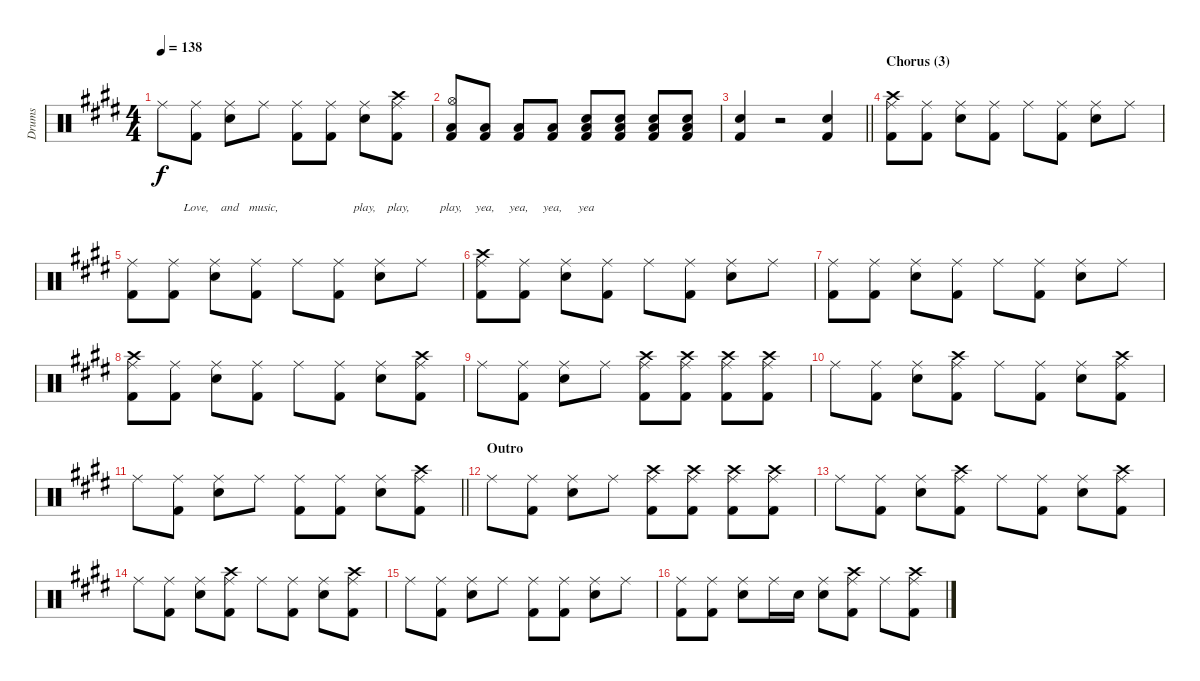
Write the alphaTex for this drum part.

\track ("Drums" "Drums") {instrument percussion}
\staff {score}
\articulation defaults
\ts (4 4)
\tempo 138
\clef neutral
\ks e "Ride (middle)".8{lyrics (0 "") lyrics (1 "") lyrics (2 "") lyrics (3 "") lyrics (4 "") dy f}
("Kick (hit) 2" "Ride (middle)").8{lyrics (0 "") lyrics (1 "") lyrics (2 "") lyrics (3 "Love,") lyrics (4 "")} ("Snare (hit) 2" "Ride (middle)").8{lyrics (0 "") lyrics (1 "") lyrics (2 "") lyrics (3 "and") lyrics (4 "")} "Ride (middle)".8{lyrics (0 "") lyrics (1 "") lyrics (2 "") lyrics (3 "music,") lyrics (4 "")} ("Kick (hit) 2" "Ride (middle)").8{lyrics (0 "") lyrics (1 "") lyrics (2 "") lyrics (3 "") lyrics (4 "")} ("Kick (hit) 2" "Ride (middle)").8{lyrics (0 "") lyrics (1 "") lyrics (2 "") lyrics (3 "") lyrics (4 "")} ("Snare (hit) 2" "Ride (middle)").8{lyrics (0 "") lyrics (1 "") lyrics (2 "") lyrics (3 "play,") lyrics (4 "")} ("Crash high (hit)" "Kick (hit) 2" "Ride (middle)").8{lyrics (0 "") lyrics (1 "") lyrics (2 "") lyrics (3 "play,") lyrics (4 "")} |
("Hi-Hat (open)" "Low Floor Tom (hit)" "Kick (hit) 2").8{lyrics (0 "") lyrics (1 "") lyrics (2 "") lyrics (3 "play,") lyrics (4 "")} ("Low Floor Tom (hit)" "Kick (hit) 2").8{lyrics (0 "") lyrics (1 "") lyrics (2 "") lyrics (3 "yea,") lyrics (4 "")} ("Low Floor Tom (hit)" "Kick (hit) 2").8{lyrics (0 "") lyrics (1 "") lyrics (2 "") lyrics (3 "yea,") lyrics (4 "")} ("Low Floor Tom (hit)" "Kick (hit) 2").8{lyrics (0 "") lyrics (1 "") lyrics (2 "") lyrics (3 "yea,") lyrics (4 "")} ("Low Floor Tom (hit)" "Kick (hit) 2" "Snare (hit) 2").8{lyrics (0 "") lyrics (1 "") lyrics (2 "") lyrics (3 "yea") lyrics (4 "")} ("Low Floor Tom (hit)" "Kick (hit) 2" "Snare (hit) 2").8 ("Low Floor Tom (hit)" "Kick (hit) 2" "Snare (hit) 2").8 ("Low Floor Tom (hit)" "Kick (hit) 2" "Snare (hit) 2").8 |
\barLineRight lightlight
("Snare (hit) 2" "Kick (hit) 2").4 r.2 ("Snare (hit) 2" "Kick (hit) 2").4 |
\section ("" "Chorus (3)")
("Crash high (hit)" "Kick (hit) 2" "Ride (middle)").8 ("Kick (hit) 2" "Ride (middle)").8 ("Snare (hit) 2" "Ride (middle)").8 ("Kick (hit) 2" "Ride (middle)").8 "Ride (middle)".8 ("Kick (hit) 2" "Ride (middle)").8 ("Snare (hit) 2" "Ride (middle)").8 "Ride (middle)".8 |
("Kick (hit) 2" "Ride (middle)").8 ("Kick (hit) 2" "Ride (middle)").8 ("Snare (hit) 2" "Ride (middle)").8 ("Kick (hit) 2" "Ride (middle)").8 "Ride (middle)".8 ("Kick (hit) 2" "Ride (middle)").8 ("Snare (hit) 2" "Ride (middle)").8 "Ride (middle)".8 |
("Crash high (hit)" "Kick (hit) 2" "Ride (middle)").8 ("Kick (hit) 2" "Ride (middle)").8 ("Snare (hit) 2" "Ride (middle)").8 ("Kick (hit) 2" "Ride (middle)").8 "Ride (middle)".8 ("Kick (hit) 2" "Ride (middle)").8 ("Snare (hit) 2" "Ride (middle)").8 "Ride (middle)".8 |
("Kick (hit) 2" "Ride (middle)").8 ("Kick (hit) 2" "Ride (middle)").8 ("Snare (hit) 2" "Ride (middle)").8 ("Kick (hit) 2" "Ride (middle)").8 "Ride (middle)".8 ("Kick (hit) 2" "Ride (middle)").8 ("Snare (hit) 2" "Ride (middle)").8 "Ride (middle)".8 |
("Crash high (hit)" "Kick (hit) 2" "Ride (middle)").8 ("Kick (hit) 2" "Ride (middle)").8 ("Snare (hit) 2" "Ride (middle)").8 ("Kick (hit) 2" "Ride (middle)").8 "Ride (middle)".8 ("Kick (hit) 2" "Ride (middle)").8 ("Snare (hit) 2" "Ride (middle)").8 ("Crash high (hit)" "Kick (hit) 2" "Ride (middle)").8 |
"Ride (middle)".8 ("Kick (hit) 2" "Ride (middle)").8 ("Snare (hit) 2" "Ride (middle)").8 "Ride (middle)".8 ("Crash high (hit)" "Kick (hit) 2" "Ride (middle)").8 ("Crash high (hit)" "Kick (hit) 2" "Ride (middle)").8 ("Crash high (hit)" "Kick (hit) 2" "Ride (middle)").8 ("Crash high (hit)" "Kick (hit) 2" "Ride (middle)").8 |
"Ride (middle)".8 ("Kick (hit) 2" "Ride (middle)").8 ("Snare (hit) 2" "Ride (middle)").8 ("Crash high (hit)" "Kick (hit) 2" "Ride (middle)").8 "Ride (middle)".8 ("Kick (hit) 2" "Ride (middle)").8 ("Snare (hit) 2" "Ride (middle)").8 ("Crash high (hit)" "Kick (hit) 2" "Ride (middle)").8 |
\barLineRight lightlight "Ride (middle)".8
("Kick (hit) 2" "Ride (middle)").8 ("Snare (hit) 2" "Ride (middle)").8 "Ride (middle)".8 ("Kick (hit) 2" "Ride (middle)").8 ("Kick (hit) 2" "Ride (middle)").8 ("Snare (hit) 2" "Ride (middle)").8 ("Crash high (hit)" "Kick (hit) 2" "Ride (middle)").8 |
\section ("" "Outro")
"Ride (middle)".8 ("Kick (hit) 2" "Ride (middle)").8 ("Snare (hit) 2" "Ride (middle)").8 "Ride (middle)".8 ("Crash high (hit)" "Kick (hit) 2" "Ride (middle)").8 ("Crash high (hit)" "Kick (hit) 2" "Ride (middle)").8 ("Crash high (hit)" "Kick (hit) 2" "Ride (middle)").8 ("Crash high (hit)" "Kick (hit) 2" "Ride (middle)").8 |
"Ride (middle)".8 ("Kick (hit) 2" "Ride (middle)").8 ("Snare (hit) 2" "Ride (middle)").8 ("Crash high (hit)" "Kick (hit) 2" "Ride (middle)").8 "Ride (middle)".8 ("Kick (hit) 2" "Ride (middle)").8 ("Snare (hit) 2" "Ride (middle)").8 ("Crash high (hit)" "Kick (hit) 2" "Ride (middle)").8 |
"Ride (middle)".8 ("Kick (hit) 2" "Ride (middle)").8 ("Snare (hit) 2" "Ride (middle)").8 ("Crash high (hit)" "Kick (hit) 2" "Ride (middle)").8 "Ride (middle)".8 ("Kick (hit) 2" "Ride (middle)").8 ("Snare (hit) 2" "Ride (middle)").8 ("Crash high (hit)" "Kick (hit) 2" "Ride (middle)").8 |
"Ride (middle)".8 ("Kick (hit) 2" "Ride (middle)").8 ("Snare (hit) 2" "Ride (middle)").8 "Ride (middle)".8 ("Kick (hit) 2" "Ride (middle)").8 ("Kick (hit) 2" "Ride (middle)").8 ("Snare (hit) 2" "Ride (middle)").8 "Ride (middle)".8 |
("Kick (hit) 2" "Ride (middle)").8 ("Kick (hit) 2" "Ride (middle)").8 ("Snare (hit) 2" "Ride (middle)").8 "Ride (middle)".16 "Snare (hit) 2".16 ("Snare (hit) 2" "Ride (middle)").8 ("Crash high (hit)" "Kick (hit) 2" "Ride (middle)").8 "Ride (middle)".8 ("Crash high (hit)" "Kick (hit) 2" "Ride (middle)").8
